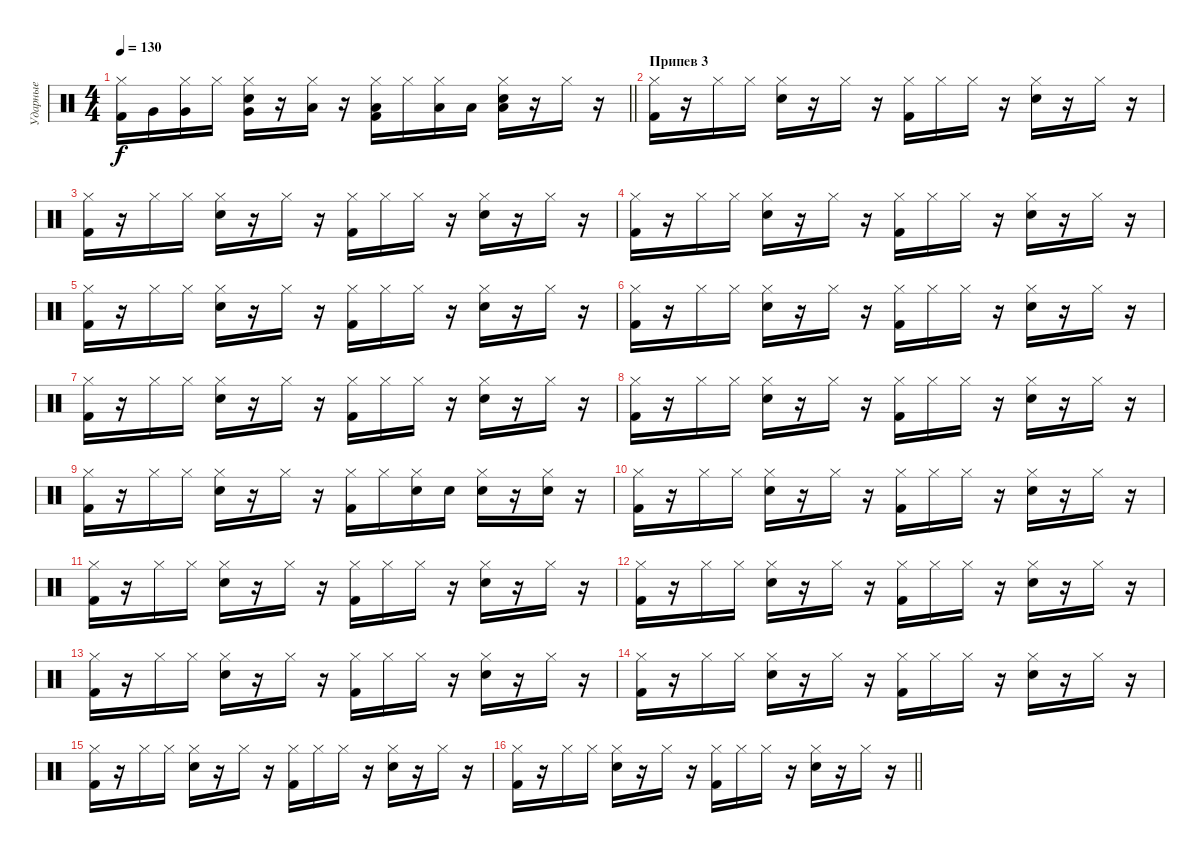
\track ("Ударные" "Ударные") {instrument percussion}
\staff {score}
\articulation defaults
\ts (4 4)
\tempo 130
\clef neutral
\barLineRight lightlight
\ks c
("Kick (hit) 2" "Hi-Hat (closed)").16{dy f} "Very Low Tom (hit)".16 ("Very Low Tom (hit)" "Hi-Hat (closed)").16 "Hi-Hat (closed)".16 ("Snare (hit) 2" "Very Low Tom (hit)" "Hi-Hat (closed)").16 r.16 ("Low Tom (hit)" "Hi-Hat (closed)").16 r.16 ("Kick (hit) 2" "Low Tom (hit)" "Hi-Hat (closed)").16 "Hi-Hat (closed)".16 ("Low Tom (hit)" "Hi-Hat (closed)").16 "Low Tom (hit)".16 ("Snare (hit) 2" "Low Tom (hit)" "Hi-Hat (closed)").16 r.16 "Hi-Hat (closed)".16 r.16 |
\section ("" "Припев 3")
("Kick (hit) 2" "Hi-Hat (closed)").16 r.16 "Hi-Hat (closed)".16 "Hi-Hat (closed)".16 ("Snare (hit) 2" "Hi-Hat (closed)").16 r.16 "Hi-Hat (closed)".16 r.16 ("Kick (hit) 2" "Hi-Hat (closed)").16 "Hi-Hat (closed)".16 "Hi-Hat (closed)".16 r.16 ("Snare (hit) 2" "Hi-Hat (closed)").16 r.16 "Hi-Hat (closed)".16 r.16 |
("Kick (hit) 2" "Hi-Hat (closed)").16 r.16 "Hi-Hat (closed)".16 "Hi-Hat (closed)".16 ("Snare (hit) 2" "Hi-Hat (closed)").16 r.16 "Hi-Hat (closed)".16 r.16 ("Kick (hit) 2" "Hi-Hat (closed)").16 "Hi-Hat (closed)".16 "Hi-Hat (closed)".16 r.16 ("Snare (hit) 2" "Hi-Hat (closed)").16 r.16 "Hi-Hat (closed)".16 r.16 |
("Kick (hit) 2" "Hi-Hat (closed)").16 r.16 "Hi-Hat (closed)".16 "Hi-Hat (closed)".16 ("Snare (hit) 2" "Hi-Hat (closed)").16 r.16 "Hi-Hat (closed)".16 r.16 ("Kick (hit) 2" "Hi-Hat (closed)").16 "Hi-Hat (closed)".16 "Hi-Hat (closed)".16 r.16 ("Snare (hit) 2" "Hi-Hat (closed)").16 r.16 "Hi-Hat (closed)".16 r.16 |
("Kick (hit) 2" "Hi-Hat (closed)").16 r.16 "Hi-Hat (closed)".16 "Hi-Hat (closed)".16 ("Snare (hit) 2" "Hi-Hat (closed)").16 r.16 "Hi-Hat (closed)".16 r.16 ("Kick (hit) 2" "Hi-Hat (closed)").16 "Hi-Hat (closed)".16 "Hi-Hat (closed)".16 r.16 ("Snare (hit) 2" "Hi-Hat (closed)").16 r.16 "Hi-Hat (closed)".16 r.16 |
("Kick (hit) 2" "Hi-Hat (closed)").16 r.16 "Hi-Hat (closed)".16 "Hi-Hat (closed)".16 ("Snare (hit) 2" "Hi-Hat (closed)").16 r.16 "Hi-Hat (closed)".16 r.16 ("Kick (hit) 2" "Hi-Hat (closed)").16 "Hi-Hat (closed)".16 "Hi-Hat (closed)".16 r.16 ("Snare (hit) 2" "Hi-Hat (closed)").16 r.16 "Hi-Hat (closed)".16 r.16 |
("Kick (hit) 2" "Hi-Hat (closed)").16 r.16 "Hi-Hat (closed)".16 "Hi-Hat (closed)".16 ("Snare (hit) 2" "Hi-Hat (closed)").16 r.16 "Hi-Hat (closed)".16 r.16 ("Kick (hit) 2" "Hi-Hat (closed)").16 "Hi-Hat (closed)".16 "Hi-Hat (closed)".16 r.16 ("Snare (hit) 2" "Hi-Hat (closed)").16 r.16 "Hi-Hat (closed)".16 r.16 |
("Kick (hit) 2" "Hi-Hat (closed)").16 r.16 "Hi-Hat (closed)".16 "Hi-Hat (closed)".16 ("Snare (hit) 2" "Hi-Hat (closed)").16 r.16 "Hi-Hat (closed)".16 r.16 ("Kick (hit) 2" "Hi-Hat (closed)").16 "Hi-Hat (closed)".16 "Hi-Hat (closed)".16 r.16 ("Snare (hit) 2" "Hi-Hat (closed)").16 r.16 "Hi-Hat (closed)".16 r.16 |
("Kick (hit) 2" "Hi-Hat (closed)").16 r.16 "Hi-Hat (closed)".16 "Hi-Hat (closed)".16 ("Snare (hit) 2" "Hi-Hat (closed)").16 r.16 "Hi-Hat (closed)".16 r.16 ("Kick (hit) 2" "Hi-Hat (closed)").16 "Hi-Hat (closed)".16 ("Snare (hit) 2" "Hi-Hat (closed)").16 "Snare (hit) 2".16 ("Snare (hit) 2" "Hi-Hat (closed)").16 r.16 ("Snare (hit) 2" "Hi-Hat (closed)").16 r.16 |
("Kick (hit) 2" "Hi-Hat (closed)").16 r.16 "Hi-Hat (closed)".16 "Hi-Hat (closed)".16 ("Snare (hit) 2" "Hi-Hat (closed)").16 r.16 "Hi-Hat (closed)".16 r.16 ("Kick (hit) 2" "Hi-Hat (closed)").16 "Hi-Hat (closed)".16 "Hi-Hat (closed)".16 r.16 ("Snare (hit) 2" "Hi-Hat (closed)").16 r.16 "Hi-Hat (closed)".16 r.16 |
("Kick (hit) 2" "Hi-Hat (closed)").16 r.16 "Hi-Hat (closed)".16 "Hi-Hat (closed)".16 ("Snare (hit) 2" "Hi-Hat (closed)").16 r.16 "Hi-Hat (closed)".16 r.16 ("Kick (hit) 2" "Hi-Hat (closed)").16 "Hi-Hat (closed)".16 "Hi-Hat (closed)".16 r.16 ("Snare (hit) 2" "Hi-Hat (closed)").16 r.16 "Hi-Hat (closed)".16 r.16 |
("Kick (hit) 2" "Hi-Hat (closed)").16 r.16 "Hi-Hat (closed)".16 "Hi-Hat (closed)".16 ("Snare (hit) 2" "Hi-Hat (closed)").16 r.16 "Hi-Hat (closed)".16 r.16 ("Kick (hit) 2" "Hi-Hat (closed)").16 "Hi-Hat (closed)".16 "Hi-Hat (closed)".16 r.16 ("Snare (hit) 2" "Hi-Hat (closed)").16 r.16 "Hi-Hat (closed)".16 r.16 |
("Kick (hit) 2" "Hi-Hat (closed)").16 r.16 "Hi-Hat (closed)".16 "Hi-Hat (closed)".16 ("Snare (hit) 2" "Hi-Hat (closed)").16 r.16 "Hi-Hat (closed)".16 r.16 ("Kick (hit) 2" "Hi-Hat (closed)").16 "Hi-Hat (closed)".16 "Hi-Hat (closed)".16 r.16 ("Snare (hit) 2" "Hi-Hat (closed)").16 r.16 "Hi-Hat (closed)".16 r.16 |
("Kick (hit) 2" "Hi-Hat (closed)").16 r.16 "Hi-Hat (closed)".16 "Hi-Hat (closed)".16 ("Snare (hit) 2" "Hi-Hat (closed)").16 r.16 "Hi-Hat (closed)".16 r.16 ("Kick (hit) 2" "Hi-Hat (closed)").16 "Hi-Hat (closed)".16 "Hi-Hat (closed)".16 r.16 ("Snare (hit) 2" "Hi-Hat (closed)").16 r.16 "Hi-Hat (closed)".16 r.16 |
("Kick (hit) 2" "Hi-Hat (closed)").16 r.16 "Hi-Hat (closed)".16 "Hi-Hat (closed)".16 ("Snare (hit) 2" "Hi-Hat (closed)").16 r.16 "Hi-Hat (closed)".16 r.16 ("Kick (hit) 2" "Hi-Hat (closed)").16 "Hi-Hat (closed)".16 "Hi-Hat (closed)".16 r.16 ("Snare (hit) 2" "Hi-Hat (closed)").16 r.16 "Hi-Hat (closed)".16 r.16 |
\barLineRight lightlight
("Kick (hit) 2" "Hi-Hat (closed)").16 r.16 "Hi-Hat (closed)".16 "Hi-Hat (closed)".16 ("Snare (hit) 2" "Hi-Hat (closed)").16 r.16 "Hi-Hat (closed)".16 r.16 ("Kick (hit) 2" "Hi-Hat (closed)").16 "Hi-Hat (closed)".16 "Hi-Hat (closed)".16 r.16 ("Snare (hit) 2" "Hi-Hat (closed)").16 r.16 "Hi-Hat (closed)".16 r.16
